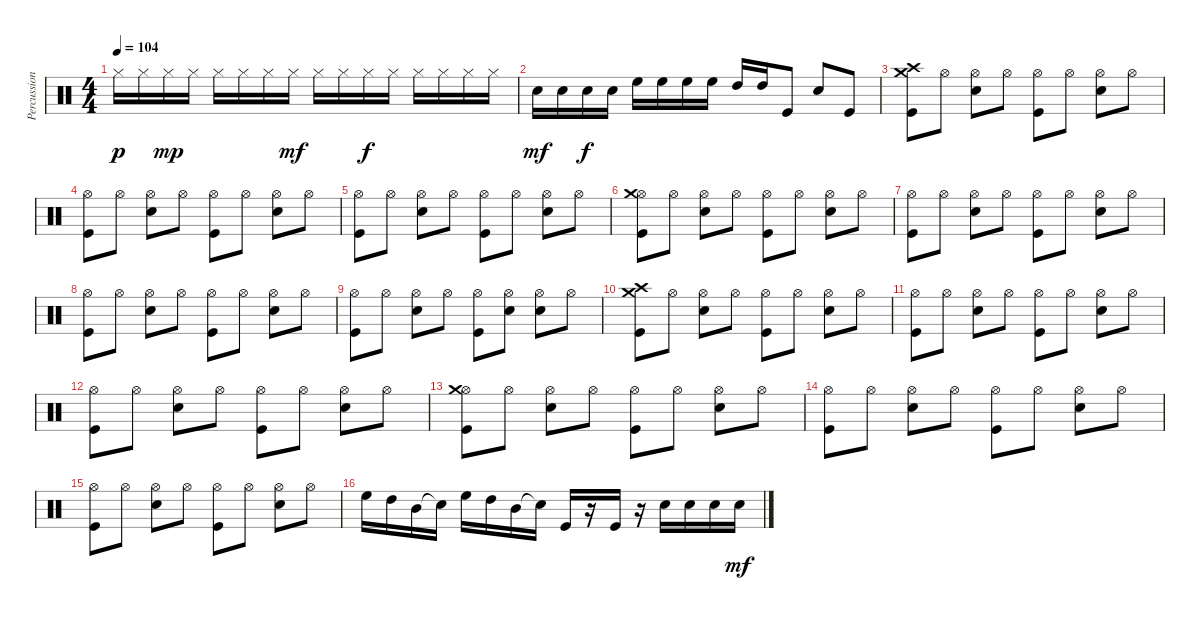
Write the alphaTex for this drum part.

\track ("Percussion" "Percussion") {instrument percussion}
\staff {score}
\articulation defaults
\ts (4 4)
\tempo 104
\clef neutral
\ks c "Hi-Hat (closed)".16{dy p} "Hi-Hat (closed)".16 "Hi-Hat (closed)".16{dy mp} "Hi-Hat (closed)".16 "Hi-Hat (closed)".16 "Hi-Hat (closed)".16 "Hi-Hat (closed)".16 "Hi-Hat (closed)".16{dy mf} "Hi-Hat (closed)".16 "Hi-Hat (closed)".16 "Hi-Hat (closed)".16{dy f} "Hi-Hat (closed)".16 "Hi-Hat (closed)".16 "Hi-Hat (closed)".16 "Hi-Hat (closed)".16 "Hi-Hat (closed)".16
|
"Snare (hit) 2".16{dy mf} "Snare (hit) 2".16 "Snare (hit) 2".16{dy f} "Snare (hit) 2".16 "High Floor Tom (hit)".16 "High Floor Tom (hit)".16 "High Floor Tom (hit)".16 "High Floor Tom (hit)".16 "High Tom (hit)".16 "High Tom (hit)".16 "Kick (hit)".8 "Electric Snare (hit)".8 "Kick (hit)".8 |
("Crash high (hit)" "Crash medium (hit)" "Kick (hit)").8 "Hi-Hat (open)".8 ("Hi-Hat (open)" "Snare (hit) 2").8 "Hi-Hat (open)".8 ("Hi-Hat (open)" "Kick (hit)").8 "Hi-Hat (open)".8 ("Hi-Hat (open)" "Snare (hit) 2").8 "Hi-Hat (open)".8 |
("Hi-Hat (open)" "Kick (hit)").8 "Hi-Hat (open)".8 ("Hi-Hat (open)" "Snare (hit) 2").8 "Hi-Hat (open)".8 ("Hi-Hat (open)" "Kick (hit)").8 "Hi-Hat (open)".8 ("Hi-Hat (open)" "Snare (hit) 2").8 "Hi-Hat (open)".8 |
("Hi-Hat (open)" "Kick (hit)").8 "Hi-Hat (open)".8 ("Hi-Hat (open)" "Snare (hit) 2").8 "Hi-Hat (open)".8 ("Hi-Hat (open)" "Kick (hit)").8 "Hi-Hat (open)".8 ("Hi-Hat (open)" "Snare (hit) 2").8 "Hi-Hat (open)".8 |
("Hi-Hat (open)" "Crash medium (hit)" "Kick (hit)").8 "Hi-Hat (open)".8 ("Hi-Hat (open)" "Snare (hit) 2").8 "Hi-Hat (open)".8 ("Hi-Hat (open)" "Kick (hit)").8 "Hi-Hat (open)".8 ("Hi-Hat (open)" "Snare (hit) 2").8 "Hi-Hat (open)".8 |
("Hi-Hat (open)" "Kick (hit)").8 "Hi-Hat (open)".8 ("Hi-Hat (open)" "Snare (hit) 2").8 "Hi-Hat (open)".8 ("Hi-Hat (open)" "Kick (hit)").8 "Hi-Hat (open)".8 ("Hi-Hat (open)" "Snare (hit) 2").8 "Hi-Hat (open)".8 |
("Hi-Hat (open)" "Kick (hit)").8 "Hi-Hat (open)".8 ("Hi-Hat (open)" "Snare (hit) 2").8 "Hi-Hat (open)".8 ("Hi-Hat (open)" "Kick (hit)").8 "Hi-Hat (open)".8 ("Hi-Hat (open)" "Snare (hit) 2").8 "Hi-Hat (open)".8 |
("Hi-Hat (open)" "Kick (hit)").8 "Hi-Hat (open)".8 ("Hi-Hat (open)" "Snare (hit) 2").8 "Hi-Hat (open)".8 ("Hi-Hat (open)" "Kick (hit)").8 ("Hi-Hat (open)" "Snare (hit) 2").8 ("Hi-Hat (open)" "Snare (hit) 2").8 "Hi-Hat (open)".8 |
("Crash high (hit)" "Crash medium (hit)" "Kick (hit)").8 "Hi-Hat (open)".8 ("Hi-Hat (open)" "Snare (hit) 2").8 "Hi-Hat (open)".8 ("Hi-Hat (open)" "Kick (hit)").8 "Hi-Hat (open)".8 ("Hi-Hat (open)" "Snare (hit) 2").8 "Hi-Hat (open)".8 |
("Hi-Hat (open)" "Kick (hit)").8 "Hi-Hat (open)".8 ("Hi-Hat (open)" "Snare (hit) 2").8 "Hi-Hat (open)".8 ("Hi-Hat (open)" "Kick (hit)").8 "Hi-Hat (open)".8 ("Hi-Hat (open)" "Snare (hit) 2").8 "Hi-Hat (open)".8 |
("Hi-Hat (open)" "Kick (hit)").8 "Hi-Hat (open)".8 ("Hi-Hat (open)" "Snare (hit) 2").8 "Hi-Hat (open)".8 ("Hi-Hat (open)" "Kick (hit)").8 "Hi-Hat (open)".8 ("Hi-Hat (open)" "Snare (hit) 2").8 "Hi-Hat (open)".8 |
("Hi-Hat (open)" "Crash medium (hit)" "Kick (hit)").8 "Hi-Hat (open)".8 ("Hi-Hat (open)" "Snare (hit) 2").8 "Hi-Hat (open)".8 ("Hi-Hat (open)" "Kick (hit)").8 "Hi-Hat (open)".8 ("Hi-Hat (open)" "Snare (hit) 2").8 "Hi-Hat (open)".8 |
("Hi-Hat (open)" "Kick (hit)").8 "Hi-Hat (open)".8 ("Hi-Hat (open)" "Snare (hit) 2").8 "Hi-Hat (open)".8 ("Hi-Hat (open)" "Kick (hit)").8 "Hi-Hat (open)".8 ("Hi-Hat (open)" "Snare (hit) 2").8 "Hi-Hat (open)".8 |
("Hi-Hat (open)" "Kick (hit)").8 "Hi-Hat (open)".8 ("Hi-Hat (open)" "Snare (hit) 2").8 "Hi-Hat (open)".8 ("Hi-Hat (open)" "Kick (hit)").8 "Hi-Hat (open)".8 ("Hi-Hat (open)" "Snare (hit) 2").8 "Hi-Hat (open)".8 |
"High Floor Tom (hit)".16 "High Tom (hit)".16 "Mid Tom (hit)".16 "Snare (hit)"{t}.16 "High Floor Tom (hit)".16 "High Tom (hit)".16 "Mid Tom (hit)".16 "Snare (hit)"{t}.16 "Kick (hit)".16 r.16 "Kick (hit)".16 r.16 "Snare (hit) 2".16 "Snare (hit) 2".16 "Snare (hit) 2".16 "Snare (hit) 2".16{dy mf}
